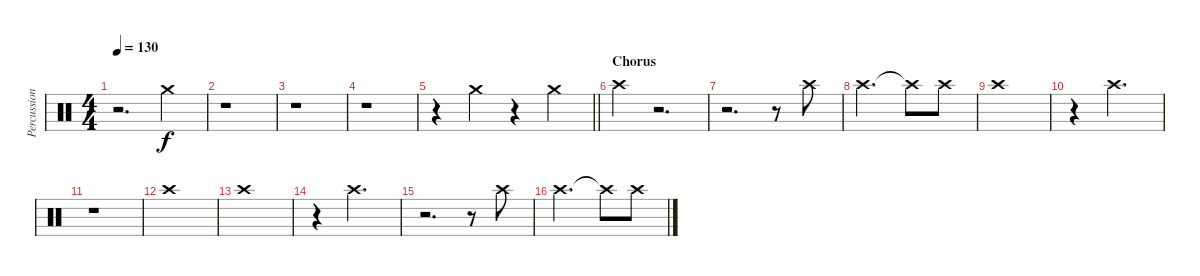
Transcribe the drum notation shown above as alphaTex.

\track ("Percussion 2" "Percussion") {instrument percussion}
\staff {score}
\articulation defaults
\ts (4 4)
\tempo 130
\clef neutral
\ks c
r.2{d dy f} "Crash medium (hit)".4 |
r.1 |
r.1 |
r.1 |
\barLineRight lightlight
r.4 "Crash medium (hit)".4 r.4 "Crash medium (hit)".4 |
\section ("" "Chorus")
"Crash high (hit)".4 r.2{d} |
r.2{d} r.8 "Crash high (hit)".8 |
"Crash high (hit)".2{d} "Crash high (hit)"{t}.8 "Crash high (hit)".8 |
"Crash high (hit)".1 |
r.4 "Crash high (hit)".2{d} |
r.1 |
"Crash high (hit)".1 |
"Crash high (hit)".1 |
r.4 "Crash high (hit)".2{d} |
r.2{d} r.8 "Crash high (hit)".8 |
"Crash high (hit)".2{d} "Crash high (hit)"{t}.8 "Crash high (hit)".8
